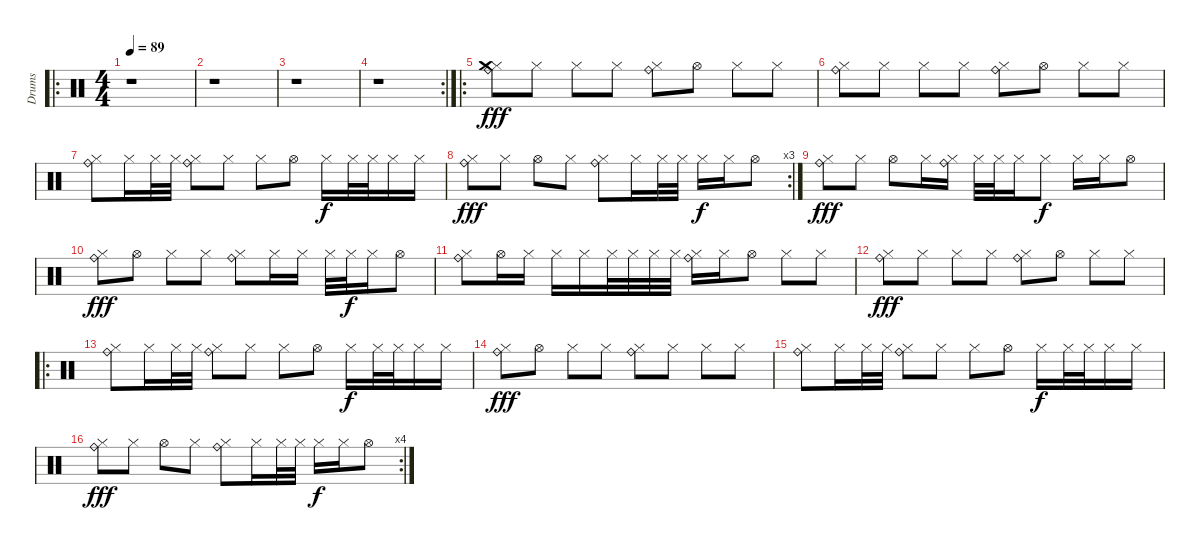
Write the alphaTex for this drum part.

\track ("Drums" "Drums") {instrument percussion}
\staff {score}
\articulation defaults
\ro
\ts (4 4)
\tempo 89
\clef neutral
\ks c
r.1{dy fff} |
r.1 |
r.1 |
\rc 2
r.1 |
\ro
("Hi-Hat (closed)" "Ride (bell)" "Crash medium (hit)").8 "Hi-Hat (closed)".8 "Hi-Hat (closed)".8 "Hi-Hat (closed)".8 ("Hi-Hat (closed)" "Ride (bell)").8 "Hi-Hat (open)".8 "Hi-Hat (closed)".8 "Hi-Hat (closed)".8 |
("Hi-Hat (closed)" "Ride (bell)").8 "Hi-Hat (closed)".8 "Hi-Hat (closed)".8 "Hi-Hat (closed)".8 ("Hi-Hat (closed)" "Ride (bell)").8 "Hi-Hat (open)".8 "Hi-Hat (closed)".8 "Hi-Hat (closed)".8 |
("Hi-Hat (closed)" "Ride (bell)").8 "Hi-Hat (closed)".16 "Hi-Hat (closed)".32 "Hi-Hat (closed)".32 ("Hi-Hat (closed)" "Ride (bell)").8 "Hi-Hat (closed)".8 "Hi-Hat (closed)".8 "Hi-Hat (open)".8 "Hi-Hat (closed)".16{dy f} "Hi-Hat (closed)".32 "Hi-Hat (closed)".32 "Hi-Hat (closed)".16 "Hi-Hat (closed)".16 |
\rc 3
("Hi-Hat (closed)" "Ride (bell)").8{dy fff} "Hi-Hat (closed)".8 "Hi-Hat (open)".8 "Hi-Hat (closed)".8 ("Hi-Hat (closed)" "Ride (bell)").8 "Hi-Hat (closed)".16 "Hi-Hat (closed)".32 "Hi-Hat (closed)".32 "Hi-Hat (closed)".16{dy f} "Hi-Hat (closed)".16 "Hi-Hat (open)".8 |
("Hi-Hat (closed)" "Ride (bell)").8{dy fff} "Hi-Hat (closed)".8 "Hi-Hat (open)".8 "Hi-Hat (closed)".16 ("Hi-Hat (closed)" "Ride (bell)").16 "Hi-Hat (closed)".32 "Hi-Hat (closed)".32 "Hi-Hat (closed)".16 "Hi-Hat (closed)".8{dy f} "Hi-Hat (closed)".16 "Hi-Hat (closed)".16 "Hi-Hat (open)".8 |
("Hi-Hat (closed)" "Ride (bell)").8{dy fff} "Hi-Hat (open)".8 "Hi-Hat (closed)".8 "Hi-Hat (closed)".8 ("Hi-Hat (closed)" "Ride (bell)").8 "Hi-Hat (closed)".16 "Hi-Hat (closed)".16 "Hi-Hat (closed)".32 "Hi-Hat (closed)".32{dy f} "Hi-Hat (closed)".16 "Hi-Hat (open)".8 |
("Hi-Hat (closed)" "Ride (bell)").8 "Hi-Hat (open)".16 "Hi-Hat (closed)".16 "Hi-Hat (closed)".16 "Hi-Hat (closed)".16 "Hi-Hat (closed)".32 "Hi-Hat (closed)".32 "Hi-Hat (closed)".32 "Hi-Hat (closed)".32 ("Hi-Hat (closed)" "Ride (bell)").16 "Hi-Hat (closed)".16 "Hi-Hat (open)".8 "Hi-Hat (closed)".8 "Hi-Hat (closed)".8 |
("Hi-Hat (closed)" "Ride (bell)").8{dy fff} "Hi-Hat (closed)".8 "Hi-Hat (closed)".8 "Hi-Hat (closed)".8 ("Hi-Hat (closed)" "Ride (bell)").8 "Hi-Hat (open)".8 "Hi-Hat (closed)".8 "Hi-Hat (closed)".8 |
\ro
("Hi-Hat (closed)" "Ride (bell)").8 "Hi-Hat (closed)".16 "Hi-Hat (closed)".32 "Hi-Hat (closed)".32 ("Hi-Hat (closed)" "Ride (bell)").8 "Hi-Hat (closed)".8 "Hi-Hat (closed)".8 "Hi-Hat (open)".8 "Hi-Hat (closed)".16{dy f} "Hi-Hat (closed)".32 "Hi-Hat (closed)".32 "Hi-Hat (closed)".16 "Hi-Hat (closed)".16 |
("Hi-Hat (closed)" "Ride (bell)").8{dy fff} "Hi-Hat (open)".8 "Hi-Hat (closed)".8 "Hi-Hat (closed)".8 ("Hi-Hat (closed)" "Ride (bell)").8 "Hi-Hat (closed)".8 "Hi-Hat (closed)".8 "Hi-Hat (closed)".8 |
("Hi-Hat (closed)" "Ride (bell)").8 "Hi-Hat (closed)".16 "Hi-Hat (closed)".32 "Hi-Hat (closed)".32 ("Hi-Hat (closed)" "Ride (bell)").8 "Hi-Hat (closed)".8 "Hi-Hat (closed)".8 "Hi-Hat (open)".8 "Hi-Hat (closed)".16{dy f} "Hi-Hat (closed)".32 "Hi-Hat (closed)".32 "Hi-Hat (closed)".16 "Hi-Hat (closed)".16 |
\rc 4
("Hi-Hat (closed)" "Ride (bell)").8{dy fff} "Hi-Hat (closed)".8 "Hi-Hat (open)".8 "Hi-Hat (closed)".8 ("Hi-Hat (closed)" "Ride (bell)").8 "Hi-Hat (closed)".16 "Hi-Hat (closed)".32 "Hi-Hat (closed)".32 "Hi-Hat (closed)".16{dy f} "Hi-Hat (closed)".16 "Hi-Hat (open)".8
